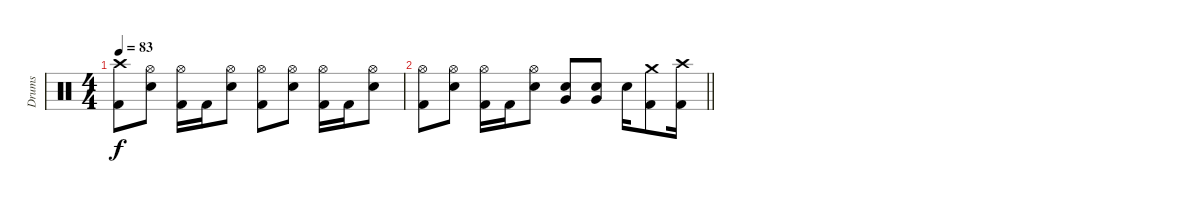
\track ("Drums" "Drums") {instrument percussion}
\staff {score}
\articulation defaults
\ts (4 4)
\tempo 83
\clef neutral
\ks c
("Crash high (hit)" "Kick (hit) 2").8{dy f} ("Hi-Hat (open)" "Electric Snare (hit)").8 ("Hi-Hat (open)" "Kick (hit) 2").16 "Kick (hit) 2".16 ("Hi-Hat (open)" "Electric Snare (hit)").8 ("Hi-Hat (open)" "Kick (hit) 2").8 ("Hi-Hat (open)" "Electric Snare (hit)").8 ("Hi-Hat (open)" "Kick (hit) 2").16 "Kick (hit) 2".16 ("Hi-Hat (open)" "Electric Snare (hit)").8 |
\barLineRight lightlight
("Hi-Hat (open)" "Kick (hit) 2").8 ("Hi-Hat (open)" "Electric Snare (hit)").8 ("Hi-Hat (open)" "Kick (hit) 2").16 "Kick (hit) 2".16 ("Hi-Hat (open)" "Electric Snare (hit)").8 ("Electric Snare (hit)" "Very Low Tom (hit)").8 ("Electric Snare (hit)" "Very Low Tom (hit)").8 "Electric Snare (hit)".16 ("Crash medium (hit)" "Kick (hit) 2").8 ("Crash high (hit)" "Kick (hit) 2").16
